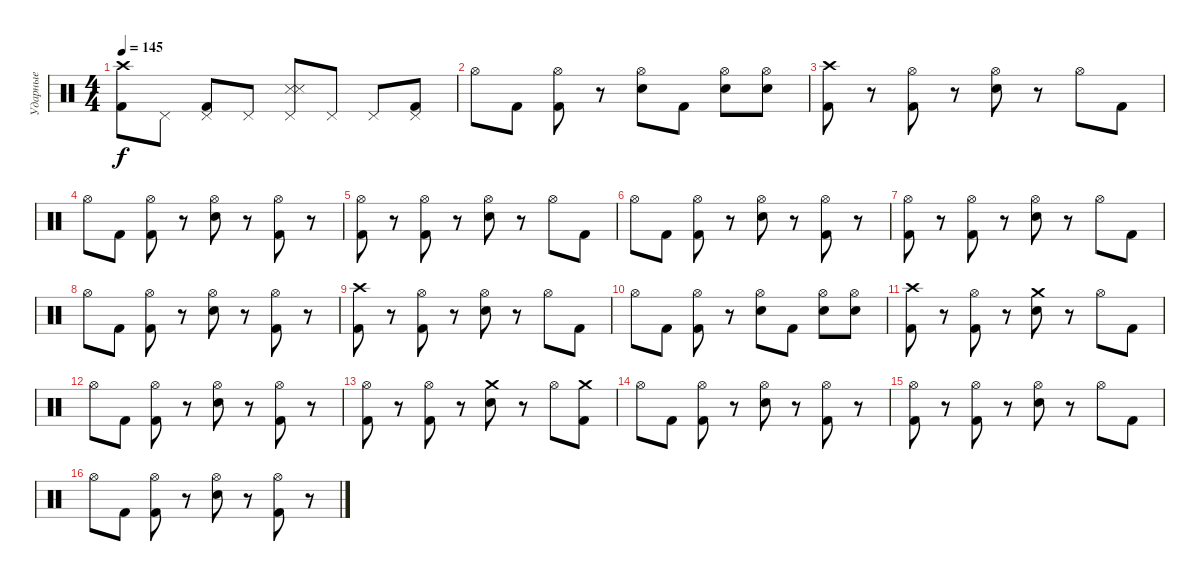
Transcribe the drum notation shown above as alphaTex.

\track ("Ударные" "Ударные") {instrument percussion}
\staff {score}
\articulation defaults
\ts (4 4)
\tempo 145
\clef neutral
\ks c
("Crash high (hit)" "Kick (hit) 2").8{dy f} "Pedal Hi-Hat (hit)".8 ("Pedal Hi-Hat (hit)" "Kick (hit) 2").8 "Pedal Hi-Hat (hit)".8 ("Pedal Hi-Hat (hit)" "Metronome (hit)" "Metronome (hit)").8 "Pedal Hi-Hat (hit)".8 "Pedal Hi-Hat (hit)".8 ("Pedal Hi-Hat (hit)" "Kick (hit) 2").8 |
"Hi-Hat (open)".8 "Kick (hit) 2".8 ("Hi-Hat (open)" "Kick (hit) 2").8 r.8 ("Hi-Hat (open)" "Snare (hit) 2").8 "Kick (hit) 2".8 ("Hi-Hat (open)" "Snare (hit) 2").8 ("Hi-Hat (open)" "Snare (hit) 2").8 |
("Crash high (hit)" "Kick (hit) 2").8 r.8 ("Hi-Hat (open)" "Kick (hit) 2").8 r.8 ("Hi-Hat (open)" "Snare (hit) 2").8 r.8 "Hi-Hat (open)".8 "Kick (hit) 2".8 |
"Hi-Hat (open)".8 "Kick (hit) 2".8 ("Hi-Hat (open)" "Kick (hit) 2").8 r.8 ("Hi-Hat (open)" "Snare (hit) 2").8 r.8 ("Hi-Hat (open)" "Kick (hit) 2").8 r.8 |
("Hi-Hat (open)" "Kick (hit) 2").8 r.8 ("Hi-Hat (open)" "Kick (hit) 2").8 r.8 ("Hi-Hat (open)" "Snare (hit) 2").8 r.8 "Hi-Hat (open)".8 "Kick (hit) 2".8 |
"Hi-Hat (open)".8 "Kick (hit) 2".8 ("Hi-Hat (open)" "Kick (hit) 2").8 r.8 ("Hi-Hat (open)" "Snare (hit) 2").8 r.8 ("Hi-Hat (open)" "Kick (hit) 2").8 r.8 |
("Hi-Hat (open)" "Kick (hit) 2").8 r.8 ("Hi-Hat (open)" "Kick (hit) 2").8 r.8 ("Hi-Hat (open)" "Snare (hit) 2").8 r.8 "Hi-Hat (open)".8 "Kick (hit) 2".8 |
"Hi-Hat (open)".8 "Kick (hit) 2".8 ("Hi-Hat (open)" "Kick (hit) 2").8 r.8 ("Hi-Hat (open)" "Snare (hit) 2").8 r.8 ("Hi-Hat (open)" "Kick (hit) 2").8 r.8 |
("Crash high (hit)" "Kick (hit) 2").8 r.8 ("Hi-Hat (open)" "Kick (hit) 2").8 r.8 ("Hi-Hat (open)" "Snare (hit) 2").8 r.8 "Hi-Hat (open)".8 "Kick (hit) 2".8 |
"Hi-Hat (open)".8 "Kick (hit) 2".8 ("Hi-Hat (open)" "Kick (hit) 2").8 r.8 ("Hi-Hat (open)" "Snare (hit) 2").8 "Kick (hit) 2".8 ("Hi-Hat (open)" "Snare (hit) 2").8 ("Hi-Hat (open)" "Snare (hit) 2").8 |
("Crash high (hit)" "Kick (hit) 2").8 r.8 ("Hi-Hat (open)" "Kick (hit) 2").8 r.8 ("Crash medium (hit)" "Snare (hit) 2").8 r.8 "Hi-Hat (open)".8 "Kick (hit) 2".8 |
"Hi-Hat (open)".8 "Kick (hit) 2".8 ("Hi-Hat (open)" "Kick (hit) 2").8 r.8 ("Hi-Hat (open)" "Snare (hit) 2").8 r.8 ("Hi-Hat (open)" "Kick (hit) 2").8 r.8 |
("Hi-Hat (open)" "Kick (hit) 2").8 r.8 ("Hi-Hat (open)" "Kick (hit) 2").8 r.8 ("Crash medium (hit)" "Snare (hit) 2").8 r.8 "Hi-Hat (open)".8 ("Crash medium (hit)" "Kick (hit) 2").8 |
"Hi-Hat (open)".8 "Kick (hit) 2".8 ("Hi-Hat (open)" "Kick (hit) 2").8 r.8 ("Hi-Hat (open)" "Snare (hit) 2").8 r.8 ("Hi-Hat (open)" "Kick (hit) 2").8 r.8 |
("Hi-Hat (open)" "Kick (hit) 2").8 r.8 ("Hi-Hat (open)" "Kick (hit) 2").8 r.8 ("Hi-Hat (open)" "Snare (hit) 2").8 r.8 "Hi-Hat (open)".8 "Kick (hit) 2".8 |
"Hi-Hat (open)".8 "Kick (hit) 2".8 ("Hi-Hat (open)" "Kick (hit) 2").8 r.8 ("Hi-Hat (open)" "Snare (hit) 2").8 r.8 ("Hi-Hat (open)" "Kick (hit) 2").8 r.8
